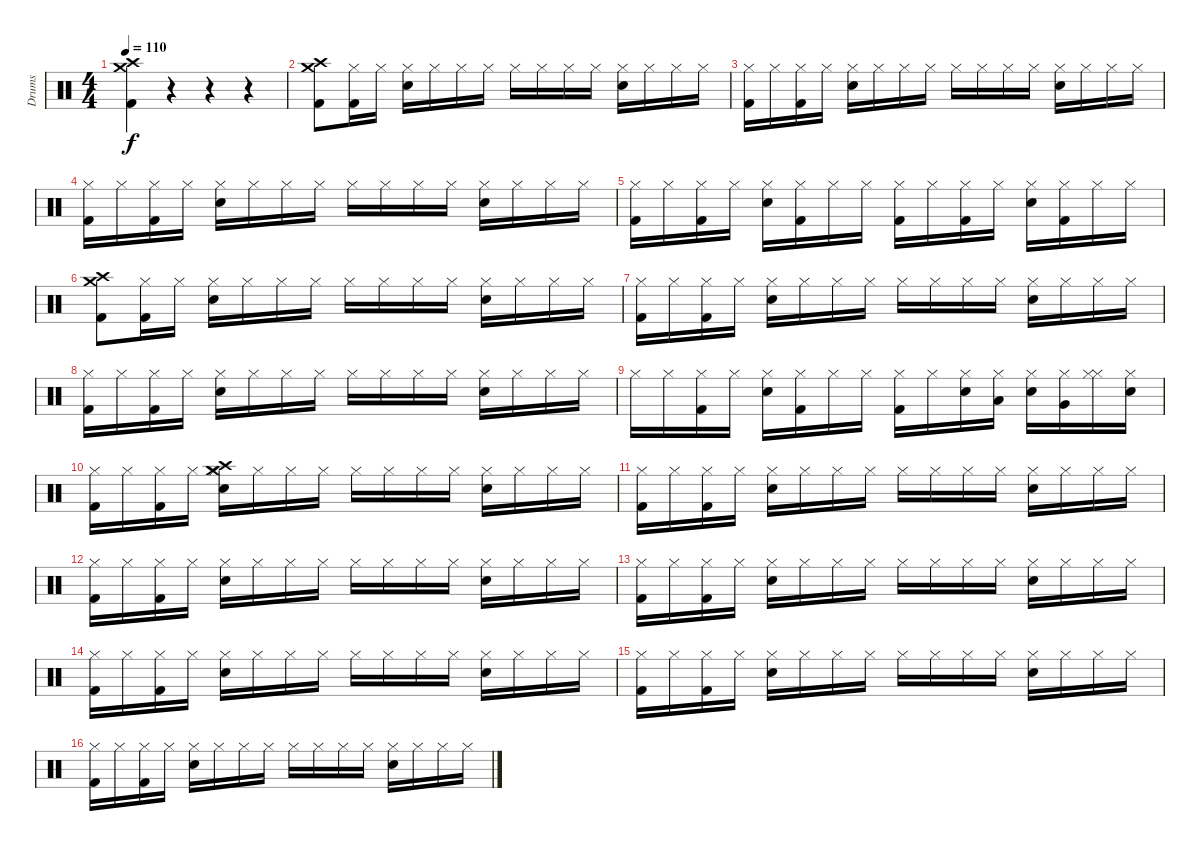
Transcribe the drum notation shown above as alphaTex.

\track ("Drums" "Drums") {instrument percussion}
\staff {score}
\articulation defaults
\ts (4 4)
\tempo 110
\clef neutral
\ks c
("Crash medium (hit)" "Crash high (hit)" "Kick (hit) 2").4{dy f} r.4 r.4 r.4 |
("Crash high (hit)" "Crash medium (hit)" "Kick (hit) 2").8 ("Hi-Hat (closed)" "Kick (hit) 2").16 "Hi-Hat (closed)".16 ("Hi-Hat (closed)" "Snare (hit) 2").16 "Hi-Hat (closed)".16 "Hi-Hat (closed)".16 "Hi-Hat (closed)".16 "Hi-Hat (closed)".16 "Hi-Hat (closed)".16 "Hi-Hat (closed)".16 "Hi-Hat (closed)".16 ("Hi-Hat (closed)" "Snare (hit) 2").16 "Hi-Hat (closed)".16 "Hi-Hat (closed)".16 "Hi-Hat (closed)".16 |
("Hi-Hat (closed)" "Kick (hit) 2").16 "Hi-Hat (closed)".16 ("Hi-Hat (closed)" "Kick (hit) 2").16 "Hi-Hat (closed)".16 ("Hi-Hat (closed)" "Snare (hit) 2").16 "Hi-Hat (closed)".16 "Hi-Hat (closed)".16 "Hi-Hat (closed)".16 "Hi-Hat (closed)".16 "Hi-Hat (closed)".16 "Hi-Hat (closed)".16 "Hi-Hat (closed)".16 ("Hi-Hat (closed)" "Snare (hit) 2").16 "Hi-Hat (closed)".16 "Hi-Hat (closed)".16 "Hi-Hat (closed)".16 |
("Hi-Hat (closed)" "Kick (hit) 2").16 "Hi-Hat (closed)".16 ("Hi-Hat (closed)" "Kick (hit) 2").16 "Hi-Hat (closed)".16 ("Hi-Hat (closed)" "Snare (hit) 2").16 "Hi-Hat (closed)".16 "Hi-Hat (closed)".16 "Hi-Hat (closed)".16 "Hi-Hat (closed)".16 "Hi-Hat (closed)".16 "Hi-Hat (closed)".16 "Hi-Hat (closed)".16 ("Hi-Hat (closed)" "Snare (hit) 2").16 "Hi-Hat (closed)".16 "Hi-Hat (closed)".16 "Hi-Hat (closed)".16 |
("Hi-Hat (closed)" "Kick (hit) 2").16 "Hi-Hat (closed)".16 ("Hi-Hat (closed)" "Kick (hit) 2").16 "Hi-Hat (closed)".16 ("Hi-Hat (closed)" "Snare (hit) 2").16 ("Hi-Hat (closed)" "Kick (hit) 2").16 "Hi-Hat (closed)".16 "Hi-Hat (closed)".16 ("Hi-Hat (closed)" "Kick (hit) 2").16 "Hi-Hat (closed)".16 ("Hi-Hat (closed)" "Kick (hit) 2").16 "Hi-Hat (closed)".16 ("Hi-Hat (closed)" "Snare (hit) 2").16 ("Hi-Hat (closed)" "Kick (hit) 2").16 "Hi-Hat (closed)".16 "Hi-Hat (closed)".16 |
("Crash high (hit)" "Crash medium (hit)" "Kick (hit) 2").8 ("Hi-Hat (closed)" "Kick (hit) 2").16 "Hi-Hat (closed)".16 ("Hi-Hat (closed)" "Snare (hit) 2").16 "Hi-Hat (closed)".16 "Hi-Hat (closed)".16 "Hi-Hat (closed)".16 "Hi-Hat (closed)".16 "Hi-Hat (closed)".16 "Hi-Hat (closed)".16 "Hi-Hat (closed)".16 ("Hi-Hat (closed)" "Snare (hit) 2").16 "Hi-Hat (closed)".16 "Hi-Hat (closed)".16 "Hi-Hat (closed)".16 |
("Hi-Hat (closed)" "Kick (hit) 2").16 "Hi-Hat (closed)".16 ("Hi-Hat (closed)" "Kick (hit) 2").16 "Hi-Hat (closed)".16 ("Hi-Hat (closed)" "Snare (hit) 2").16 "Hi-Hat (closed)".16 "Hi-Hat (closed)".16 "Hi-Hat (closed)".16 "Hi-Hat (closed)".16 "Hi-Hat (closed)".16 "Hi-Hat (closed)".16 "Hi-Hat (closed)".16 ("Hi-Hat (closed)" "Snare (hit) 2").16 "Hi-Hat (closed)".16 "Hi-Hat (closed)".16 "Hi-Hat (closed)".16 |
("Hi-Hat (closed)" "Kick (hit) 2").16 "Hi-Hat (closed)".16 ("Hi-Hat (closed)" "Kick (hit) 2").16 "Hi-Hat (closed)".16 ("Hi-Hat (closed)" "Snare (hit) 2").16 "Hi-Hat (closed)".16 "Hi-Hat (closed)".16 "Hi-Hat (closed)".16 "Hi-Hat (closed)".16 "Hi-Hat (closed)".16 "Hi-Hat (closed)".16 "Hi-Hat (closed)".16 ("Hi-Hat (closed)" "Snare (hit) 2").16 "Hi-Hat (closed)".16 "Hi-Hat (closed)".16 "Hi-Hat (closed)".16 |
"Hi-Hat (closed)".16 "Hi-Hat (closed)".16 ("Hi-Hat (closed)" "Kick (hit) 2").16 "Hi-Hat (closed)".16 ("Hi-Hat (closed)" "Snare (hit) 2").16 ("Hi-Hat (closed)" "Kick (hit) 2").16 "Hi-Hat (closed)".16 "Hi-Hat (closed)".16 ("Hi-Hat (closed)" "Kick (hit) 2").16 "Hi-Hat (closed)".16 ("Hi-Hat (closed)" "Snare (hit) 2").16 ("Hi-Hat (closed)" "Low Tom (hit)").16 ("Hi-Hat (closed)" "Snare (hit) 2").16 ("Hi-Hat (closed)" "Very Low Tom (hit)").16 ("Hi-Hat (closed)" "Hi-Hat (closed)").16 ("Hi-Hat (closed)" "Snare (hit) 2").16 |
("Hi-Hat (closed)" "Kick (hit) 2").16 "Hi-Hat (closed)".16 ("Hi-Hat (closed)" "Kick (hit) 2").16 "Hi-Hat (closed)".16 ("Hi-Hat (closed)" "Crash medium (hit)" "Crash high (hit)" "Snare (hit) 2").16 "Hi-Hat (closed)".16 "Hi-Hat (closed)".16 "Hi-Hat (closed)".16 "Hi-Hat (closed)".16 "Hi-Hat (closed)".16 "Hi-Hat (closed)".16 "Hi-Hat (closed)".16 ("Hi-Hat (closed)" "Snare (hit) 2").16 "Hi-Hat (closed)".16 "Hi-Hat (closed)".16 "Hi-Hat (closed)".16 |
("Hi-Hat (closed)" "Kick (hit) 2").16 "Hi-Hat (closed)".16 ("Hi-Hat (closed)" "Kick (hit) 2").16 "Hi-Hat (closed)".16 ("Hi-Hat (closed)" "Snare (hit) 2").16 "Hi-Hat (closed)".16 "Hi-Hat (closed)".16 "Hi-Hat (closed)".16 "Hi-Hat (closed)".16 "Hi-Hat (closed)".16 "Hi-Hat (closed)".16 "Hi-Hat (closed)".16 ("Hi-Hat (closed)" "Snare (hit) 2").16 "Hi-Hat (closed)".16 "Hi-Hat (closed)".16 "Hi-Hat (closed)".16 |
("Hi-Hat (closed)" "Kick (hit) 2").16 "Hi-Hat (closed)".16 ("Hi-Hat (closed)" "Kick (hit) 2").16 "Hi-Hat (closed)".16 ("Hi-Hat (closed)" "Snare (hit) 2").16 "Hi-Hat (closed)".16 "Hi-Hat (closed)".16 "Hi-Hat (closed)".16 "Hi-Hat (closed)".16 "Hi-Hat (closed)".16 "Hi-Hat (closed)".16 "Hi-Hat (closed)".16 ("Hi-Hat (closed)" "Snare (hit) 2").16 "Hi-Hat (closed)".16 "Hi-Hat (closed)".16 "Hi-Hat (closed)".16 |
("Hi-Hat (closed)" "Kick (hit) 2").16 "Hi-Hat (closed)".16 ("Hi-Hat (closed)" "Kick (hit) 2").16 "Hi-Hat (closed)".16 ("Hi-Hat (closed)" "Snare (hit) 2").16 "Hi-Hat (closed)".16 "Hi-Hat (closed)".16 "Hi-Hat (closed)".16 "Hi-Hat (closed)".16 "Hi-Hat (closed)".16 "Hi-Hat (closed)".16 "Hi-Hat (closed)".16 ("Hi-Hat (closed)" "Snare (hit) 2").16 "Hi-Hat (closed)".16 "Hi-Hat (closed)".16 "Hi-Hat (closed)".16 |
("Hi-Hat (closed)" "Kick (hit) 2").16 "Hi-Hat (closed)".16 ("Hi-Hat (closed)" "Kick (hit) 2").16 "Hi-Hat (closed)".16 ("Hi-Hat (closed)" "Snare (hit) 2").16 "Hi-Hat (closed)".16 "Hi-Hat (closed)".16 "Hi-Hat (closed)".16 "Hi-Hat (closed)".16 "Hi-Hat (closed)".16 "Hi-Hat (closed)".16 "Hi-Hat (closed)".16 ("Hi-Hat (closed)" "Snare (hit) 2").16 "Hi-Hat (closed)".16 "Hi-Hat (closed)".16 "Hi-Hat (closed)".16 |
("Hi-Hat (closed)" "Kick (hit) 2").16 "Hi-Hat (closed)".16 ("Hi-Hat (closed)" "Kick (hit) 2").16 "Hi-Hat (closed)".16 ("Hi-Hat (closed)" "Snare (hit) 2").16 "Hi-Hat (closed)".16 "Hi-Hat (closed)".16 "Hi-Hat (closed)".16 "Hi-Hat (closed)".16 "Hi-Hat (closed)".16 "Hi-Hat (closed)".16 "Hi-Hat (closed)".16 ("Hi-Hat (closed)" "Snare (hit) 2").16 "Hi-Hat (closed)".16 "Hi-Hat (closed)".16 "Hi-Hat (closed)".16 |
("Hi-Hat (closed)" "Kick (hit) 2").16 "Hi-Hat (closed)".16 ("Hi-Hat (closed)" "Kick (hit) 2").16 "Hi-Hat (closed)".16 ("Hi-Hat (closed)" "Snare (hit) 2").16 "Hi-Hat (closed)".16 "Hi-Hat (closed)".16 "Hi-Hat (closed)".16 "Hi-Hat (closed)".16 "Hi-Hat (closed)".16 "Hi-Hat (closed)".16 "Hi-Hat (closed)".16 ("Hi-Hat (closed)" "Snare (hit) 2").16 "Hi-Hat (closed)".16 "Hi-Hat (closed)".16 "Hi-Hat (closed)".16
